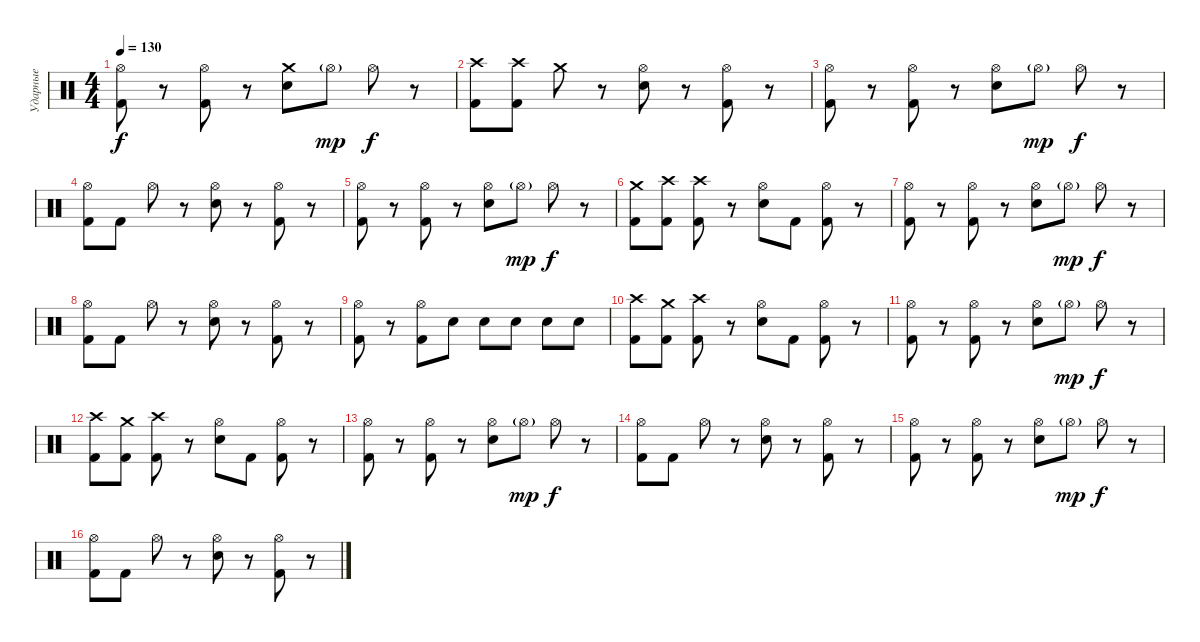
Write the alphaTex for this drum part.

\track ("Ударные" "Ударные") {instrument percussion}
\staff {score}
\articulation defaults
\ts (4 4)
\tempo 130
\clef neutral
\ks c
("Hi-Hat (open)" "Kick (hit) 2").8{dy f} r.8 ("Hi-Hat (open)" "Kick (hit) 2").8 r.8 ("Crash medium (hit)" "Snare (hit) 2").8 "Hi-Hat (open)"{g}.8{dy mp} "Hi-Hat (open)".8{dy f} r.8 |
("Crash high (hit)" "Kick (hit) 2").8 ("Crash high (hit)" "Kick (hit) 2").8 "Crash medium (hit)".8 r.8 ("Hi-Hat (open)" "Snare (hit) 2").8 r.8 ("Hi-Hat (open)" "Kick (hit) 2").8 r.8 |
("Hi-Hat (open)" "Kick (hit) 2").8 r.8 ("Hi-Hat (open)" "Kick (hit) 2").8 r.8 ("Hi-Hat (open)" "Snare (hit) 2").8 "Hi-Hat (open)"{g}.8{dy mp} "Hi-Hat (open)".8{dy f} r.8 |
("Hi-Hat (open)" "Kick (hit) 2").8 "Kick (hit) 2".8 "Hi-Hat (open)".8 r.8 ("Hi-Hat (open)" "Snare (hit) 2").8 r.8 ("Hi-Hat (open)" "Kick (hit) 2").8 r.8 |
("Hi-Hat (open)" "Kick (hit) 2").8 r.8 ("Hi-Hat (open)" "Kick (hit) 2").8 r.8 ("Hi-Hat (open)" "Snare (hit) 2").8 "Hi-Hat (open)"{g}.8{dy mp} "Hi-Hat (open)".8{dy f} r.8 |
("Crash medium (hit)" "Kick (hit) 2").8 ("Crash high (hit)" "Kick (hit) 2").8 ("Crash high (hit)" "Kick (hit) 2").8 r.8 ("Hi-Hat (open)" "Snare (hit) 2").8 "Kick (hit) 2".8 ("Hi-Hat (open)" "Kick (hit) 2").8 r.8 |
("Hi-Hat (open)" "Kick (hit) 2").8 r.8 ("Hi-Hat (open)" "Kick (hit) 2").8 r.8 ("Hi-Hat (open)" "Snare (hit) 2").8 "Hi-Hat (open)"{g}.8{dy mp} "Hi-Hat (open)".8{dy f} r.8 |
("Hi-Hat (open)" "Kick (hit) 2").8 "Kick (hit) 2".8 "Hi-Hat (open)".8 r.8 ("Hi-Hat (open)" "Snare (hit) 2").8 r.8 ("Hi-Hat (open)" "Kick (hit) 2").8 r.8 |
("Hi-Hat (open)" "Kick (hit) 2").8 r.8 ("Hi-Hat (open)" "Kick (hit) 2").8 "Snare (hit) 2".8 "Snare (hit) 2".8 "Snare (hit) 2".8 "Snare (hit) 2".8 "Snare (hit) 2".8 |
("Crash high (hit)" "Kick (hit) 2").8 ("Crash medium (hit)" "Kick (hit) 2").8 ("Crash high (hit)" "Kick (hit) 2").8 r.8 ("Hi-Hat (open)" "Snare (hit) 2").8 "Kick (hit) 2".8 ("Hi-Hat (open)" "Kick (hit) 2").8 r.8 |
("Hi-Hat (open)" "Kick (hit) 2").8 r.8 ("Hi-Hat (open)" "Kick (hit) 2").8 r.8 ("Hi-Hat (open)" "Snare (hit) 2").8 "Hi-Hat (open)"{g}.8{dy mp} "Hi-Hat (open)".8{dy f} r.8 |
("Crash high (hit)" "Kick (hit) 2").8 ("Crash medium (hit)" "Kick (hit) 2").8 ("Crash high (hit)" "Kick (hit) 2").8 r.8 ("Hi-Hat (open)" "Snare (hit) 2").8 "Kick (hit) 2".8 ("Hi-Hat (open)" "Kick (hit) 2").8 r.8 |
("Hi-Hat (open)" "Kick (hit) 2").8 r.8 ("Hi-Hat (open)" "Kick (hit) 2").8 r.8 ("Hi-Hat (open)" "Snare (hit) 2").8 "Hi-Hat (open)"{g}.8{dy mp} "Hi-Hat (open)".8{dy f} r.8 |
("Hi-Hat (open)" "Kick (hit) 2").8 "Kick (hit) 2".8 "Hi-Hat (open)".8 r.8 ("Hi-Hat (open)" "Snare (hit) 2").8 r.8 ("Hi-Hat (open)" "Kick (hit) 2").8 r.8 |
("Hi-Hat (open)" "Kick (hit) 2").8 r.8 ("Hi-Hat (open)" "Kick (hit) 2").8 r.8 ("Hi-Hat (open)" "Snare (hit) 2").8 "Hi-Hat (open)"{g}.8{dy mp} "Hi-Hat (open)".8{dy f} r.8 |
("Hi-Hat (open)" "Kick (hit) 2").8 "Kick (hit) 2".8 "Hi-Hat (open)".8 r.8 ("Hi-Hat (open)" "Snare (hit) 2").8 r.8 ("Hi-Hat (open)" "Kick (hit) 2").8 r.8
